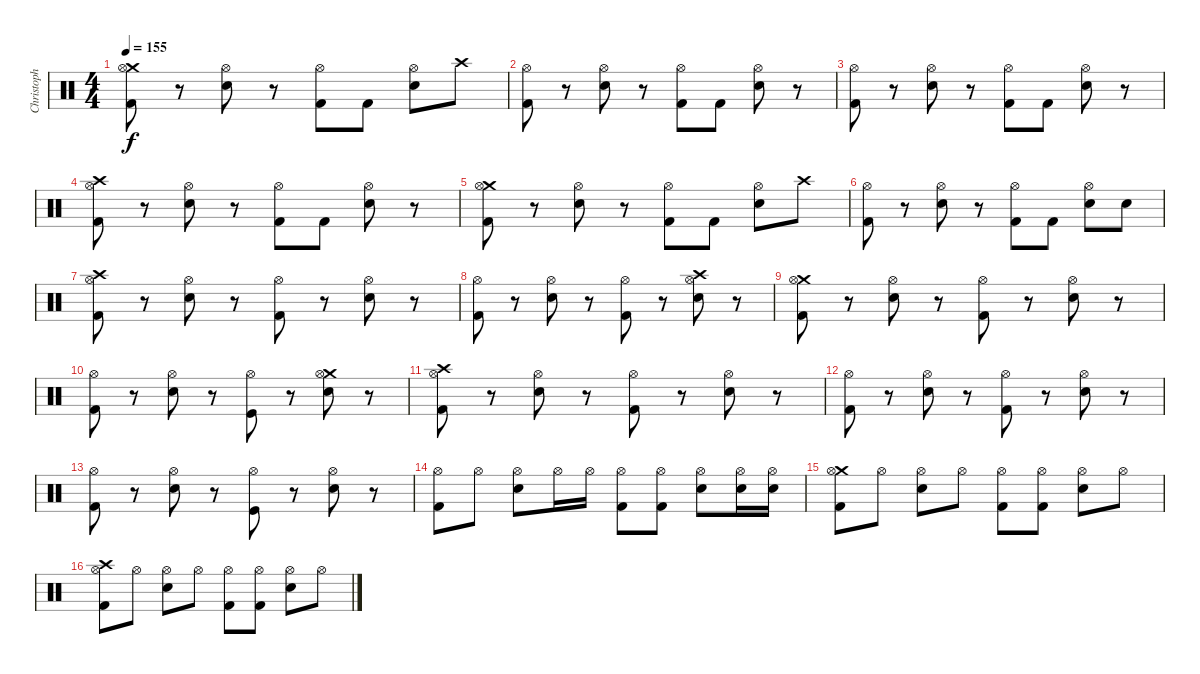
\track ("Christoph \"Doom\" Schneider" "Christoph ") {instrument percussion}
\staff {score}
\articulation defaults
\ts (4 4)
\tempo 155
\clef neutral
\ks c
("Kick (hit) 2" "Crash medium (hit)" "Hi-Hat (open)").8{dy f} r.8 ("Electric Snare (hit)" "Hi-Hat (open)").8 r.8 ("Kick (hit) 2" "Hi-Hat (open)").8 "Kick (hit) 2".8 ("Electric Snare (hit)" "Hi-Hat (open)").8 "Crash high (hit)".8 |
("Kick (hit) 2" "Hi-Hat (open)").8 r.8 ("Electric Snare (hit)" "Hi-Hat (open)").8 r.8 ("Kick (hit) 2" "Hi-Hat (open)").8 "Kick (hit) 2".8 ("Electric Snare (hit)" "Hi-Hat (open)").8 r.8 |
("Kick (hit) 2" "Hi-Hat (open)").8 r.8 ("Electric Snare (hit)" "Hi-Hat (open)").8 r.8 ("Kick (hit) 2" "Hi-Hat (open)").8 "Kick (hit) 2".8 ("Electric Snare (hit)" "Hi-Hat (open)").8 r.8 |
("Kick (hit) 2" "Crash high (hit)" "Hi-Hat (open)").8 r.8 ("Electric Snare (hit)" "Hi-Hat (open)").8 r.8 ("Kick (hit) 2" "Hi-Hat (open)").8 "Kick (hit) 2".8 ("Electric Snare (hit)" "Hi-Hat (open)").8 r.8 |
("Kick (hit) 2" "Crash medium (hit)" "Hi-Hat (open)").8 r.8 ("Electric Snare (hit)" "Hi-Hat (open)").8 r.8 ("Kick (hit) 2" "Hi-Hat (open)").8 "Kick (hit) 2".8 ("Electric Snare (hit)" "Hi-Hat (open)").8 "Crash high (hit)".8 |
("Kick (hit) 2" "Hi-Hat (open)").8 r.8 ("Electric Snare (hit)" "Hi-Hat (open)").8 r.8 ("Kick (hit) 2" "Hi-Hat (open)").8 "Kick (hit) 2".8 ("Electric Snare (hit)" "Hi-Hat (open)").8 "Electric Snare (hit)".8 |
("Kick (hit) 2" "Crash high (hit)" "Hi-Hat (open)").8 r.8 ("Electric Snare (hit)" "Hi-Hat (open)").8 r.8 ("Kick (hit) 2" "Hi-Hat (open)").8 r.8 ("Electric Snare (hit)" "Hi-Hat (open)").8 r.8 |
("Kick (hit) 2" "Hi-Hat (open)").8 r.8 ("Electric Snare (hit)" "Hi-Hat (open)").8 r.8 ("Kick (hit) 2" "Hi-Hat (open)").8 r.8 ("Electric Snare (hit)" "Crash high (hit)" "Hi-Hat (open)").8 r.8 |
("Kick (hit) 2" "Crash medium (hit)" "Hi-Hat (open)").8 r.8 ("Electric Snare (hit)" "Hi-Hat (open)").8 r.8 ("Kick (hit) 2" "Hi-Hat (open)").8 r.8 ("Electric Snare (hit)" "Hi-Hat (open)").8 r.8 |
("Kick (hit) 2" "Hi-Hat (open)").8 r.8 ("Electric Snare (hit)" "Hi-Hat (open)").8 r.8 ("Kick (hit)" "Hi-Hat (open)").8 r.8 ("Electric Snare (hit)" "Crash medium (hit)" "Hi-Hat (open)").8 r.8 |
("Kick (hit) 2" "Crash high (hit)" "Hi-Hat (open)").8 r.8 ("Electric Snare (hit)" "Hi-Hat (open)").8 r.8 ("Kick (hit) 2" "Hi-Hat (open)").8 r.8 ("Electric Snare (hit)" "Hi-Hat (open)").8 r.8 |
("Kick (hit) 2" "Hi-Hat (open)").8 r.8 ("Electric Snare (hit)" "Hi-Hat (open)").8 r.8 ("Kick (hit) 2" "Hi-Hat (open)").8 r.8 ("Electric Snare (hit)" "Hi-Hat (open)").8 r.8 |
("Kick (hit) 2" "Hi-Hat (open)").8 r.8 ("Electric Snare (hit)" "Hi-Hat (open)").8 r.8 ("Kick (hit)" "Hi-Hat (open)").8 r.8 ("Electric Snare (hit)" "Hi-Hat (open)").8 r.8 |
("Kick (hit) 2" "Hi-Hat (open)").8 "Hi-Hat (open)".8 ("Electric Snare (hit)" "Hi-Hat (open)").8 "Hi-Hat (open)".16 "Hi-Hat (open)".16 ("Kick (hit) 2" "Hi-Hat (open)").8 ("Kick (hit) 2" "Hi-Hat (open)").8 ("Electric Snare (hit)" "Hi-Hat (open)").8 ("Electric Snare (hit)" "Hi-Hat (open)").16 ("Electric Snare (hit)" "Hi-Hat (open)").16 |
("Kick (hit) 2" "Crash medium (hit)" "Hi-Hat (open)").8 "Hi-Hat (open)".8 ("Electric Snare (hit)" "Hi-Hat (open)").8 "Hi-Hat (open)".8 ("Kick (hit) 2" "Hi-Hat (open)").8 ("Kick (hit) 2" "Hi-Hat (open)").8 ("Electric Snare (hit)" "Hi-Hat (open)").8 "Hi-Hat (open)".8 |
("Kick (hit) 2" "Crash high (hit)" "Hi-Hat (open)").8 "Hi-Hat (open)".8 ("Electric Snare (hit)" "Hi-Hat (open)").8 "Hi-Hat (open)".8 ("Kick (hit) 2" "Hi-Hat (open)").8 ("Kick (hit) 2" "Hi-Hat (open)").8 ("Electric Snare (hit)" "Hi-Hat (open)").8 "Hi-Hat (open)".8
